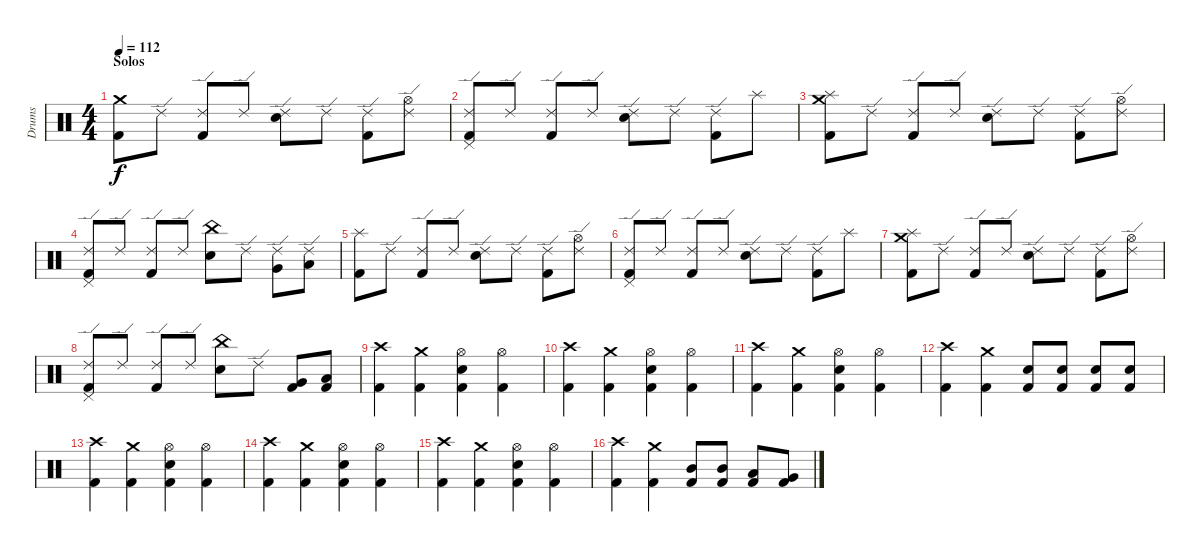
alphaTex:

\track ("Drums" "Drums") {instrument percussion}
\staff {score}
\articulation defaults
\ts (4 4)
\section ("" "Solos")
\tempo 112
\clef neutral
\ks c
("Crash medium (hit)" "Kick (hit) 2").8{dy f} "Ride (edge) 2".8 ("Kick (hit) 2" "Ride (edge) 2").8 "Ride (edge) 2".8 ("Ride (edge) 2" "Snare (hit) 2").8 "Ride (edge) 2".8 ("Kick (hit) 2" "Ride (edge) 2").8 ("Hi-Hat (open)" "Ride (edge) 2").8 |
("Ride (edge) 2" "Kick (hit) 2" "Pedal Hi-Hat (hit)").8 "Ride (edge) 2".8 ("Kick (hit) 2" "Ride (edge) 2").8 "Ride (edge) 2".8 ("Ride (edge) 2" "Snare (hit) 2").8 "Ride (edge) 2".8 ("Kick (hit) 2" "Ride (edge) 2").8 "Splash (hit)".8 |
("Crash medium (hit)" "Kick (hit) 2" "Splash (hit)").8 "Ride (edge) 2".8 ("Kick (hit) 2" "Ride (edge) 2").8 "Ride (edge) 2".8 ("Ride (edge) 2" "Snare (hit) 2").8 "Ride (edge) 2".8 ("Kick (hit) 2" "Ride (edge) 2").8 ("Hi-Hat (open)" "Ride (edge) 2").8 |
("Ride (edge) 2" "Kick (hit) 2" "Pedal Hi-Hat (hit)").8 "Ride (edge) 2".8 ("Kick (hit) 2" "Ride (edge) 2").8 "Ride (edge) 2".8 ("China (hit)" "Snare (hit) 2").8 "Ride (edge) 2".8 ("Very Low Tom (hit)" "Ride (edge) 2").8 ("Ride (edge) 2" "Low Floor Tom (hit)").8 |
("Splash (hit)" "Kick (hit) 2").8 "Ride (edge) 2".8 ("Kick (hit) 2" "Ride (edge) 2").8 "Ride (edge) 2".8 ("Ride (edge) 2" "Snare (hit) 2").8 "Ride (edge) 2".8 ("Kick (hit) 2" "Ride (edge) 2").8 ("Hi-Hat (open)" "Ride (edge) 2").8 |
("Ride (edge) 2" "Kick (hit) 2" "Pedal Hi-Hat (hit)").8 "Ride (edge) 2".8 ("Kick (hit) 2" "Ride (edge) 2").8 "Ride (edge) 2".8 ("Ride (edge) 2" "Snare (hit) 2").8 "Ride (edge) 2".8 ("Kick (hit) 2" "Ride (edge) 2").8 "Splash (hit)".8 |
("Crash medium (hit)" "Kick (hit) 2" "Splash (hit)").8 "Ride (edge) 2".8 ("Kick (hit) 2" "Ride (edge) 2").8 "Ride (edge) 2".8 ("Ride (edge) 2" "Snare (hit) 2").8 "Ride (edge) 2".8 ("Kick (hit) 2" "Ride (edge) 2").8 ("Hi-Hat (open)" "Ride (edge) 2").8 |
("Ride (edge) 2" "Kick (hit) 2" "Pedal Hi-Hat (hit)").8 "Ride (edge) 2".8 ("Kick (hit) 2" "Ride (edge) 2").8 "Ride (edge) 2".8 ("China (hit)" "Snare (hit) 2").8 "Ride (edge) 2".8 ("Very Low Tom (hit)" "Kick (hit) 2").8 ("Kick (hit) 2" "Low Floor Tom (hit)").8 |
("Crash high (hit)" "Kick (hit) 2").4 ("Crash medium (hit)" "Kick (hit) 2").4 ("Kick (hit) 2" "Snare (hit) 2" "Hi-Hat (open)").4 ("Kick (hit) 2" "Hi-Hat (open)").4 |
("Crash high (hit)" "Kick (hit) 2").4 ("Crash medium (hit)" "Kick (hit) 2").4 ("Kick (hit) 2" "Snare (hit) 2" "Hi-Hat (open)").4 ("Kick (hit) 2" "Hi-Hat (open)").4 |
("Crash high (hit)" "Kick (hit) 2").4 ("Crash medium (hit)" "Kick (hit) 2").4 ("Kick (hit) 2" "Snare (hit) 2" "Hi-Hat (open)").4 ("Kick (hit) 2" "Hi-Hat (open)").4 |
("Crash high (hit)" "Kick (hit) 2").4 ("Crash medium (hit)" "Kick (hit) 2").4 ("Snare (hit) 2" "Kick (hit) 2").8 ("Snare (hit) 2" "Kick (hit) 2").8 ("Snare (hit) 2" "Kick (hit) 2").8 ("Snare (hit) 2" "Kick (hit) 2").8 |
("Crash high (hit)" "Kick (hit) 2").4 ("Crash medium (hit)" "Kick (hit) 2").4 ("Kick (hit) 2" "Snare (hit) 2" "Hi-Hat (open)").4 ("Kick (hit) 2" "Hi-Hat (open)").4 |
("Crash high (hit)" "Kick (hit) 2").4 ("Crash medium (hit)" "Kick (hit) 2").4 ("Kick (hit) 2" "Snare (hit) 2" "Hi-Hat (open)").4 ("Kick (hit) 2" "Hi-Hat (open)").4 |
("Crash high (hit)" "Kick (hit) 2").4 ("Crash medium (hit)" "Kick (hit) 2").4 ("Kick (hit) 2" "Snare (hit) 2" "Hi-Hat (open)").4 ("Kick (hit) 2" "Hi-Hat (open)").4 |
("Crash high (hit)" "Kick (hit) 2").4 ("Crash medium (hit)" "Kick (hit) 2").4 ("Mid Tom (hit)" "Kick (hit) 2").8 ("Mid Tom (hit)" "Kick (hit) 2").8 ("Low Tom (hit)" "Kick (hit) 2").8 ("Very Low Tom (hit)" "Kick (hit) 2").8
